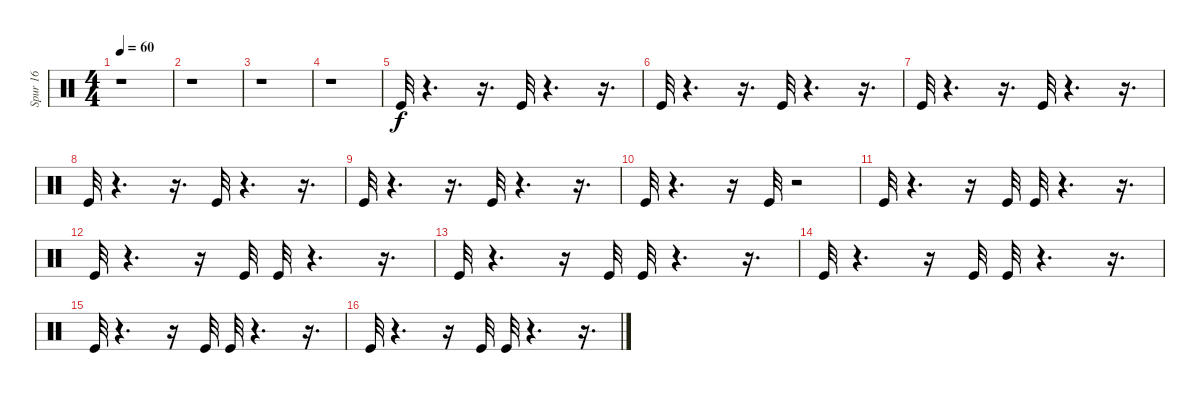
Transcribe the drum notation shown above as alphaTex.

\track ("Spur 16" "Spur 16") {instrument percussion}
\staff {score}
\articulation defaults
\ts (4 4)
\tempo 60
\clef neutral
\ks c
r.1{dy f} |
r.1 |
r.1 |
r.1 |
"Kick (hit)".32 r.4{d} r.16{d} "Kick (hit)".32 r.4{d} r.16{d} |
"Kick (hit)".32 r.4{d} r.16{d} "Kick (hit)".32 r.4{d} r.16{d} |
"Kick (hit)".32 r.4{d} r.16{d} "Kick (hit)".32 r.4{d} r.16{d} |
"Kick (hit)".32 r.4{d} r.16{d} "Kick (hit)".32 r.4{d} r.16{d} |
"Kick (hit)".32 r.4{d} r.16{d} "Kick (hit)".32 r.4{d} r.16{d} |
"Kick (hit)".32 r.4{d} r.16 "Kick (hit)".32 r.2 |
"Kick (hit)".32 r.4{d} r.16 "Kick (hit)".32 "Kick (hit)".32 r.4{d} r.16{d} |
"Kick (hit)".32 r.4{d} r.16 "Kick (hit)".32 "Kick (hit)".32 r.4{d} r.16{d} |
"Kick (hit)".32 r.4{d} r.16 "Kick (hit)".32 "Kick (hit)".32 r.4{d} r.16{d} |
"Kick (hit)".32 r.4{d} r.16 "Kick (hit)".32 "Kick (hit)".32 r.4{d} r.16{d} |
"Kick (hit)".32 r.4{d} r.16 "Kick (hit)".32 "Kick (hit)".32 r.4{d} r.16{d} |
"Kick (hit)".32 r.4{d} r.16 "Kick (hit)".32 "Kick (hit)".32 r.4{d} r.16{d}
